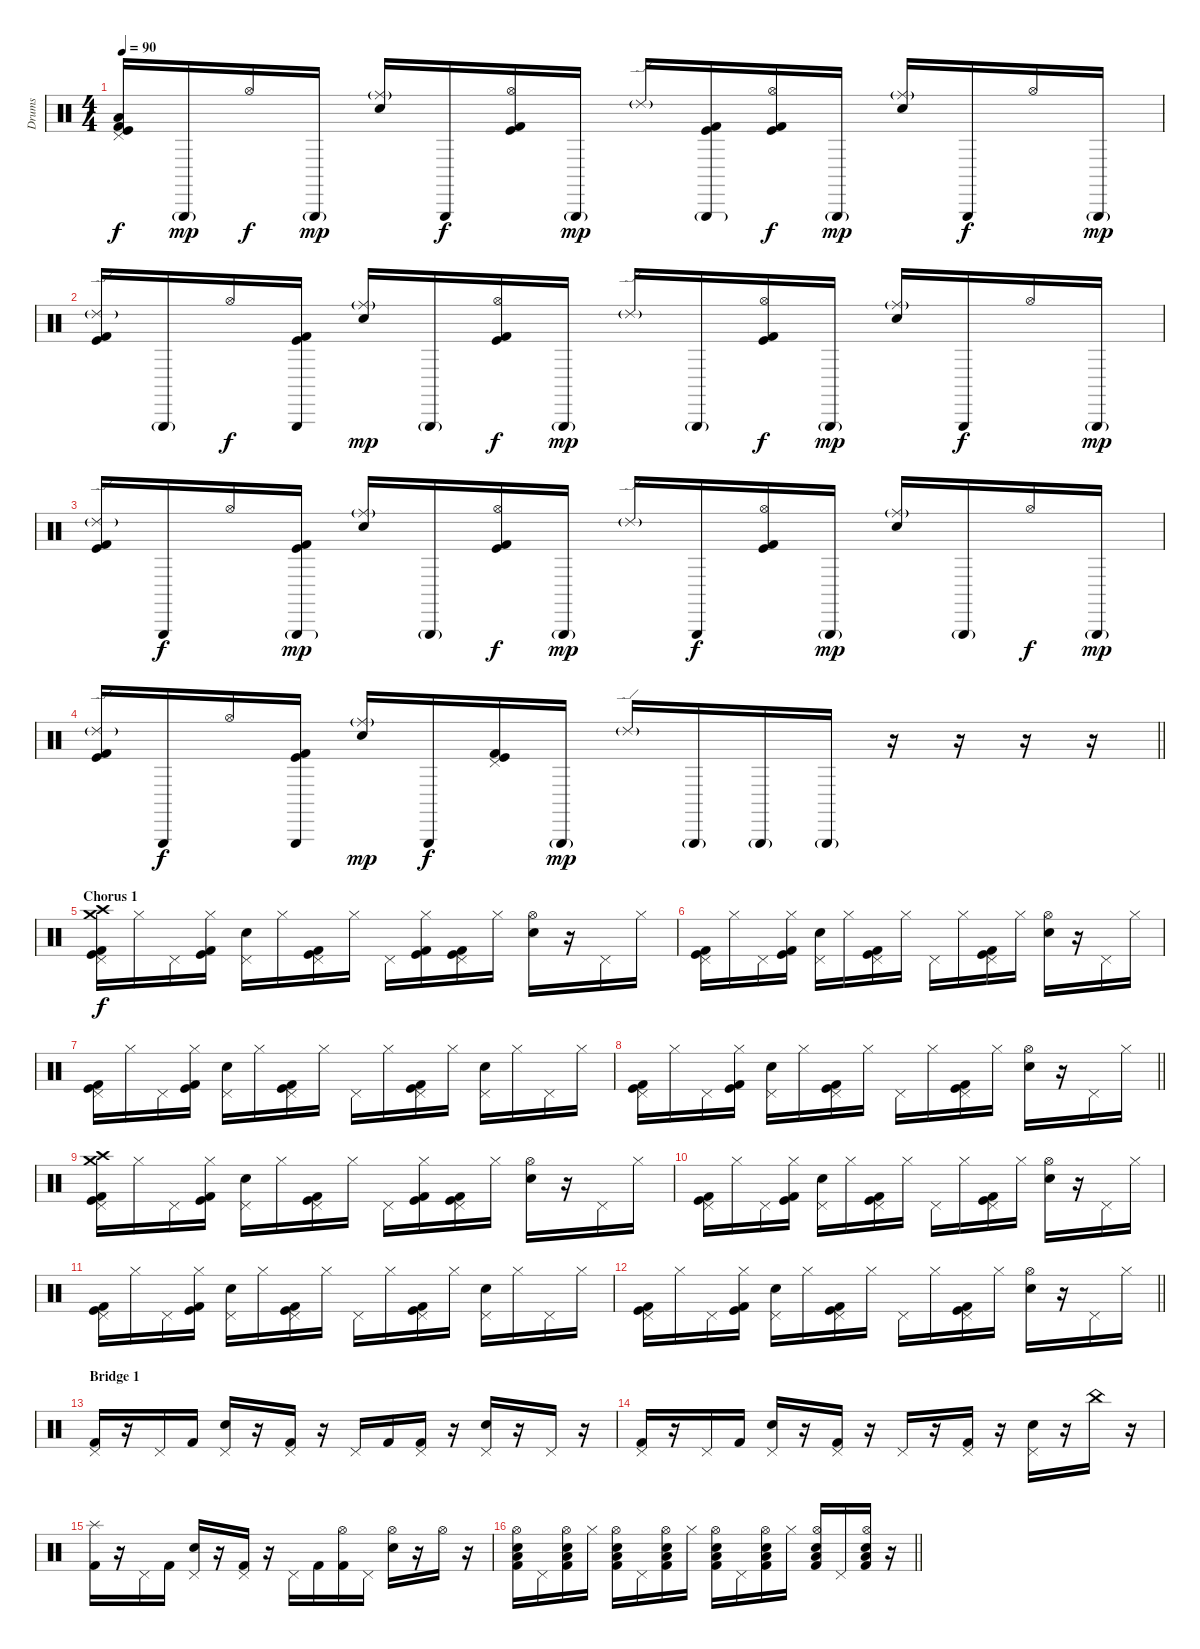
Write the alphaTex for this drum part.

\track ("Drums" "Drums") {instrument percussion}
\staff {score}
\articulation defaults
\ts (4 4)
\tempo 90
\clef neutral
\ks c
("Pedal Hi-Hat (hit)" "Low Floor Tom (hit)" "Kick (hit)" "Kick (hit) 2").16{dy f} "Triangle (hit)"{g}.16{dy mp} "Hi-Hat (open)".16{dy f} "Triangle (hit)"{g}.16{dy mp} ("Ride (middle)"{g} "Electric Snare (hit)").16 "Triangle (hit)".16{dy f} ("Hi-Hat (open)" "Kick (hit)" "Kick (hit) 2").16 "Triangle (hit)"{g}.16{dy mp} "Ride (edge) 2"{g}.16 ("Triangle (hit)"{g} "Kick (hit)" "Kick (hit) 2").16 ("Hi-Hat (open)" "Kick (hit)" "Kick (hit) 2").16{dy f} "Triangle (hit)"{g}.16{dy mp} ("Ride (middle)"{g} "Electric Snare (hit)").16 "Triangle (hit)".16{dy f} "Hi-Hat (open)".16 "Triangle (hit)"{g}.16{dy mp} |
("Ride (edge) 2"{g} "Kick (hit)" "Kick (hit) 2").16 "Triangle (hit)"{g}.16 "Hi-Hat (open)".16{dy f} ("Triangle (hit)" "Kick (hit)" "Kick (hit) 2").16 ("Ride (middle)"{g} "Electric Snare (hit)").16{dy mp} "Triangle (hit)"{g}.16 ("Hi-Hat (open)" "Kick (hit)" "Kick (hit) 2").16{dy f} "Triangle (hit)"{g}.16{dy mp} "Ride (edge) 2"{g}.16 "Triangle (hit)"{g}.16 ("Hi-Hat (open)" "Kick (hit)" "Kick (hit) 2").16{dy f} "Triangle (hit)"{g}.16{dy mp} ("Ride (middle)"{g} "Electric Snare (hit)").16 "Triangle (hit)".16{dy f} "Hi-Hat (open)".16 "Triangle (hit)"{g}.16{dy mp} |
("Ride (edge) 2"{g} "Kick (hit)" "Kick (hit) 2").16 "Triangle (hit)".16{dy f} "Hi-Hat (open)".16 ("Triangle (hit)"{g} "Kick (hit)" "Kick (hit) 2").16{dy mp} ("Ride (middle)"{g} "Electric Snare (hit)").16 "Triangle (hit)"{g}.16 ("Hi-Hat (open)" "Kick (hit)" "Kick (hit) 2").16{dy f} "Triangle (hit)"{g}.16{dy mp} "Ride (edge) 2"{g}.16 "Triangle (hit)".16{dy f} ("Hi-Hat (open)" "Kick (hit)" "Kick (hit) 2").16 "Triangle (hit)"{g}.16{dy mp} ("Ride (middle)"{g} "Electric Snare (hit)").16 "Triangle (hit)"{g}.16 "Hi-Hat (open)".16{dy f} "Triangle (hit)"{g}.16{dy mp} |
\barLineRight lightlight
("Ride (edge) 2"{g} "Kick (hit)" "Kick (hit) 2").16 "Triangle (hit)".16{dy f} "Hi-Hat (open)".16 ("Triangle (hit)" "Kick (hit)" "Kick (hit) 2").16 ("Ride (middle)"{g} "Electric Snare (hit)").16{dy mp} "Triangle (hit)".16{dy f} ("Pedal Hi-Hat (hit)" "Kick (hit)" "Kick (hit) 2").16 "Triangle (hit)"{g}.16{dy mp} "Ride (edge) 2"{g}.16 "Triangle (hit)"{g}.16 "Triangle (hit)"{g}.16 "Triangle (hit)"{g}.16 r.16 r.16 r.16 r.16 |
\section ("" "Chorus 1")
("Crash high (hit)" "Pedal Hi-Hat (hit)" "Crash medium (hit)" "Kick (hit)" "Kick (hit) 2").16{dy f} "Hi-Hat (closed)".16 "Pedal Hi-Hat (hit)".16 ("Hi-Hat (closed)" "Kick (hit)" "Kick (hit) 2").16 ("Pedal Hi-Hat (hit)" "Electric Snare (hit)").16 "Hi-Hat (closed)".16 ("Pedal Hi-Hat (hit)" "Kick (hit)" "Kick (hit) 2").16 "Hi-Hat (closed)".16 "Pedal Hi-Hat (hit)".16 ("Hi-Hat (closed)" "Kick (hit)" "Kick (hit) 2").16 ("Pedal Hi-Hat (hit)" "Kick (hit)" "Kick (hit) 2").16 "Hi-Hat (closed)".16 ("Hi-Hat (open)" "Electric Snare (hit)").16 r.16 "Pedal Hi-Hat (hit)".16 "Hi-Hat (closed)".16 |
("Pedal Hi-Hat (hit)" "Kick (hit)" "Kick (hit) 2").16 "Hi-Hat (closed)".16 "Pedal Hi-Hat (hit)".16 ("Hi-Hat (closed)" "Kick (hit)" "Kick (hit) 2").16 ("Pedal Hi-Hat (hit)" "Electric Snare (hit)").16 "Hi-Hat (closed)".16 ("Pedal Hi-Hat (hit)" "Kick (hit)" "Kick (hit) 2").16 "Hi-Hat (closed)".16 "Pedal Hi-Hat (hit)".16 "Hi-Hat (closed)".16 ("Pedal Hi-Hat (hit)" "Kick (hit)" "Kick (hit) 2").16 "Hi-Hat (closed)".16 ("Hi-Hat (open)" "Electric Snare (hit)").16 r.16 "Pedal Hi-Hat (hit)".16 "Hi-Hat (closed)".16 |
("Pedal Hi-Hat (hit)" "Kick (hit)" "Kick (hit) 2").16 "Hi-Hat (closed)".16 "Pedal Hi-Hat (hit)".16 ("Hi-Hat (closed)" "Kick (hit)" "Kick (hit) 2").16 ("Pedal Hi-Hat (hit)" "Electric Snare (hit)").16 "Hi-Hat (closed)".16 ("Pedal Hi-Hat (hit)" "Kick (hit)" "Kick (hit) 2").16 "Hi-Hat (closed)".16 "Pedal Hi-Hat (hit)".16 "Hi-Hat (closed)".16 ("Pedal Hi-Hat (hit)" "Kick (hit)" "Kick (hit) 2").16 "Hi-Hat (closed)".16 ("Pedal Hi-Hat (hit)" "Electric Snare (hit)").16 "Hi-Hat (closed)".16 "Pedal Hi-Hat (hit)".16 "Hi-Hat (closed)".16 |
\barLineRight lightlight
("Pedal Hi-Hat (hit)" "Kick (hit)" "Kick (hit) 2").16 "Hi-Hat (closed)".16 "Pedal Hi-Hat (hit)".16 ("Hi-Hat (closed)" "Kick (hit)" "Kick (hit) 2").16 ("Pedal Hi-Hat (hit)" "Electric Snare (hit)").16 "Hi-Hat (closed)".16 ("Pedal Hi-Hat (hit)" "Kick (hit)" "Kick (hit) 2").16 "Hi-Hat (closed)".16 "Pedal Hi-Hat (hit)".16 "Hi-Hat (closed)".16 ("Pedal Hi-Hat (hit)" "Kick (hit)" "Kick (hit) 2").16 "Hi-Hat (closed)".16 ("Hi-Hat (open)" "Electric Snare (hit)").16 r.16 "Pedal Hi-Hat (hit)".16 "Hi-Hat (closed)".16 |
("Crash high (hit)" "Pedal Hi-Hat (hit)" "Crash medium (hit)" "Kick (hit)" "Kick (hit) 2").16 "Hi-Hat (closed)".16 "Pedal Hi-Hat (hit)".16 ("Hi-Hat (closed)" "Kick (hit)" "Kick (hit) 2").16 ("Pedal Hi-Hat (hit)" "Electric Snare (hit)").16 "Hi-Hat (closed)".16 ("Pedal Hi-Hat (hit)" "Kick (hit)" "Kick (hit) 2").16 "Hi-Hat (closed)".16 "Pedal Hi-Hat (hit)".16 ("Hi-Hat (closed)" "Kick (hit)" "Kick (hit) 2").16 ("Pedal Hi-Hat (hit)" "Kick (hit)" "Kick (hit) 2").16 "Hi-Hat (closed)".16 ("Hi-Hat (open)" "Electric Snare (hit)").16 r.16 "Pedal Hi-Hat (hit)".16 "Hi-Hat (closed)".16 |
("Pedal Hi-Hat (hit)" "Kick (hit)" "Kick (hit) 2").16 "Hi-Hat (closed)".16 "Pedal Hi-Hat (hit)".16 ("Hi-Hat (closed)" "Kick (hit)" "Kick (hit) 2").16 ("Pedal Hi-Hat (hit)" "Electric Snare (hit)").16 "Hi-Hat (closed)".16 ("Pedal Hi-Hat (hit)" "Kick (hit)" "Kick (hit) 2").16 "Hi-Hat (closed)".16 "Pedal Hi-Hat (hit)".16 "Hi-Hat (closed)".16 ("Pedal Hi-Hat (hit)" "Kick (hit)" "Kick (hit) 2").16 "Hi-Hat (closed)".16 ("Hi-Hat (open)" "Electric Snare (hit)").16 r.16 "Pedal Hi-Hat (hit)".16 "Hi-Hat (closed)".16 |
("Pedal Hi-Hat (hit)" "Kick (hit)" "Kick (hit) 2").16 "Hi-Hat (closed)".16 "Pedal Hi-Hat (hit)".16 ("Hi-Hat (closed)" "Kick (hit)" "Kick (hit) 2").16 ("Pedal Hi-Hat (hit)" "Electric Snare (hit)").16 "Hi-Hat (closed)".16 ("Pedal Hi-Hat (hit)" "Kick (hit)" "Kick (hit) 2").16 "Hi-Hat (closed)".16 "Pedal Hi-Hat (hit)".16 "Hi-Hat (closed)".16 ("Pedal Hi-Hat (hit)" "Kick (hit)" "Kick (hit) 2").16 "Hi-Hat (closed)".16 ("Pedal Hi-Hat (hit)" "Electric Snare (hit)").16 "Hi-Hat (closed)".16 "Pedal Hi-Hat (hit)".16 "Hi-Hat (closed)".16 |
\barLineRight lightlight
("Pedal Hi-Hat (hit)" "Kick (hit)" "Kick (hit) 2").16 "Hi-Hat (closed)".16 "Pedal Hi-Hat (hit)".16 ("Hi-Hat (closed)" "Kick (hit)" "Kick (hit) 2").16 ("Pedal Hi-Hat (hit)" "Electric Snare (hit)").16 "Hi-Hat (closed)".16 ("Pedal Hi-Hat (hit)" "Kick (hit)" "Kick (hit) 2").16 "Hi-Hat (closed)".16 "Pedal Hi-Hat (hit)".16 "Hi-Hat (closed)".16 ("Pedal Hi-Hat (hit)" "Kick (hit)" "Kick (hit) 2").16 "Hi-Hat (closed)".16 ("Hi-Hat (open)" "Electric Snare (hit)").16 r.16 "Pedal Hi-Hat (hit)".16 "Hi-Hat (closed)".16 |
\section ("" "Bridge 1")
("Pedal Hi-Hat (hit)" "Kick (hit) 2").16{volume 10} r.16 "Pedal Hi-Hat (hit)".16 "Kick (hit) 2".16 ("Pedal Hi-Hat (hit)" "Electric Snare (hit)").16 r.16 ("Pedal Hi-Hat (hit)" "Kick (hit) 2").16 r.16 "Pedal Hi-Hat (hit)".16 "Kick (hit) 2".16 ("Pedal Hi-Hat (hit)" "Kick (hit) 2").16 r.16 ("Pedal Hi-Hat (hit)" "Electric Snare (hit)").16 r.16 "Pedal Hi-Hat (hit)".16 r.16 |
("Pedal Hi-Hat (hit)" "Kick (hit) 2").16 r.16 "Pedal Hi-Hat (hit)".16 "Kick (hit) 2".16 ("Pedal Hi-Hat (hit)" "Electric Snare (hit)").16 r.16 ("Pedal Hi-Hat (hit)" "Kick (hit) 2").16 r.16 "Pedal Hi-Hat (hit)".16 r.16 ("Pedal Hi-Hat (hit)" "Kick (hit) 2").16 r.16 ("Pedal Hi-Hat (hit)" "Electric Snare (hit)").16 r.16 "China (hit)".16 r.16 |
("Splash (hit)" "Kick (hit) 2").16{volume 12} r.16 "Pedal Hi-Hat (hit)".16 "Kick (hit) 2".16 ("Pedal Hi-Hat (hit)" "Electric Snare (hit)").16 r.16 ("Pedal Hi-Hat (hit)" "Kick (hit) 2").16 r.16 "Pedal Hi-Hat (hit)".16 "Kick (hit) 2".16 ("Hi-Hat (open)" "Kick (hit) 2").16 "Pedal Hi-Hat (hit)".16 ("Hi-Hat (open)" "Electric Snare (hit)").16 r.16 "Hi-Hat (open)".16 r.16 |
\barLineRight lightlight
("Hi-Hat (open)" "Electric Snare (hit)" "Low Floor Tom (hit)" "Kick (hit) 2").16{volume 14} "Pedal Hi-Hat (hit)".16 ("Hi-Hat (open)" "Electric Snare (hit)" "Low Floor Tom (hit)" "Kick (hit) 2").16 "Hi-Hat (closed)".16 ("Hi-Hat (open)" "Electric Snare (hit)" "Low Floor Tom (hit)" "Kick (hit) 2").16 "Pedal Hi-Hat (hit)".16 ("Hi-Hat (open)" "Electric Snare (hit)" "Low Floor Tom (hit)" "Kick (hit) 2").16 "Hi-Hat (closed)".16 ("Hi-Hat (open)" "Electric Snare (hit)" "Low Floor Tom (hit)" "Kick (hit) 2").16{volume 16} "Pedal Hi-Hat (hit)".16 ("Hi-Hat (open)" "Electric Snare (hit)" "Low Floor Tom (hit)" "Kick (hit) 2").16 "Hi-Hat (closed)".16 ("Hi-Hat (open)" "Electric Snare (hit)" "Low Floor Tom (hit)" "Kick (hit) 2").16 "Pedal Hi-Hat (hit)".16 ("Hi-Hat (open)" "Electric Snare (hit)" "Low Floor Tom (hit)" "Kick (hit) 2").16 r.16
